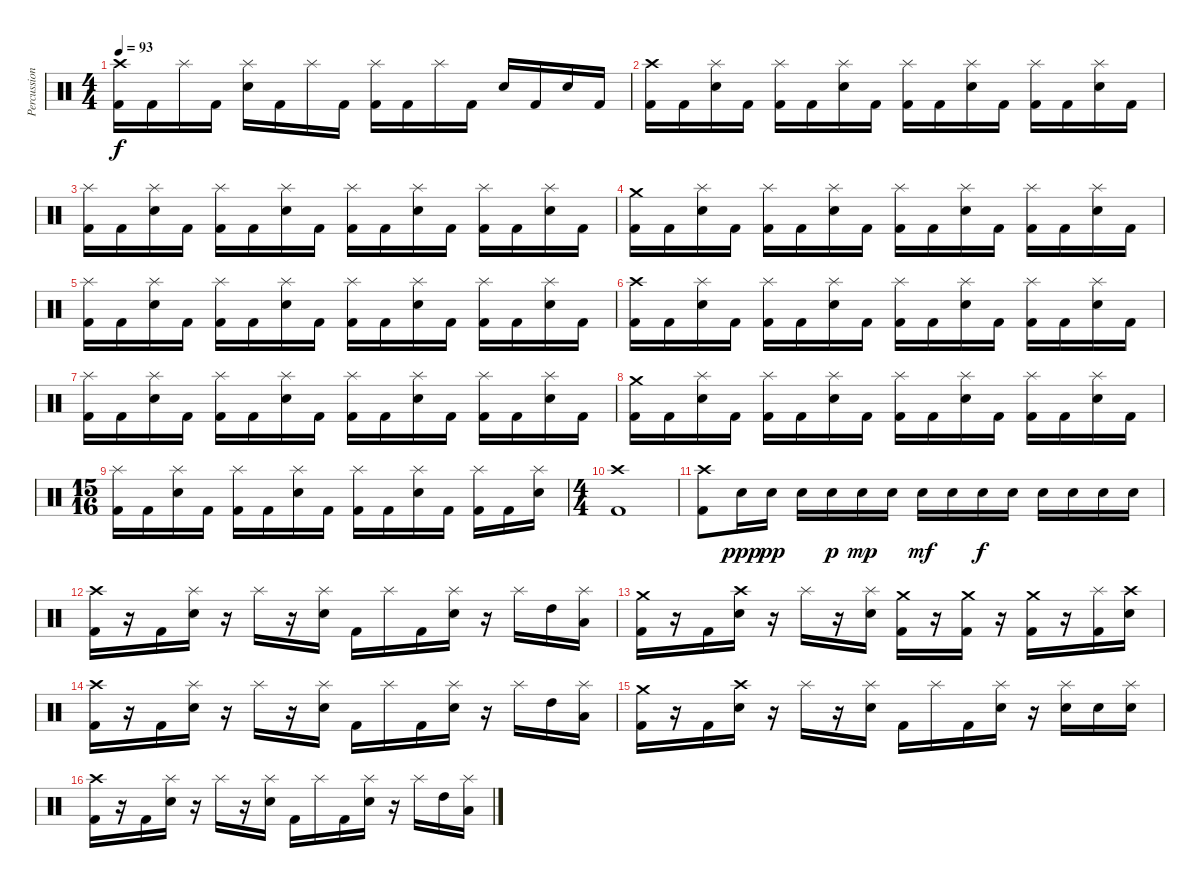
\track ("Percussion" "Percussion") {instrument percussion}
\staff {score}
\articulation defaults
\ts (4 4)
\tempo 93
\clef neutral
\ks c
("Crash high (hit)" "Kick (hit) 2").16{dy f} "Kick (hit) 2".16 "Splash (hit)".16 "Kick (hit) 2".16 ("Splash (hit)" "Electric Snare (hit)").16 "Kick (hit) 2".16 "Splash (hit)".16 "Kick (hit) 2".16 ("Splash (hit)" "Kick (hit) 2").16 "Kick (hit) 2".16 "Splash (hit)".16 "Kick (hit) 2".16 "Electric Snare (hit)".16 "Kick (hit) 2".16 "Electric Snare (hit)".16 "Kick (hit) 2".16 |
("Crash high (hit)" "Kick (hit) 2").16 "Kick (hit) 2".16 ("Splash (hit)" "Electric Snare (hit)").16 "Kick (hit) 2".16 ("Splash (hit)" "Kick (hit) 2").16 "Kick (hit) 2".16 ("Splash (hit)" "Electric Snare (hit)").16 "Kick (hit) 2".16 ("Splash (hit)" "Kick (hit) 2").16 "Kick (hit) 2".16 ("Splash (hit)" "Electric Snare (hit)").16 "Kick (hit) 2".16 ("Splash (hit)" "Kick (hit) 2").16 "Kick (hit) 2".16 ("Splash (hit)" "Electric Snare (hit)").16 "Kick (hit) 2".16 |
("Splash (hit)" "Kick (hit) 2").16 "Kick (hit) 2".16 ("Splash (hit)" "Electric Snare (hit)").16 "Kick (hit) 2".16 ("Splash (hit)" "Kick (hit) 2").16 "Kick (hit) 2".16 ("Splash (hit)" "Electric Snare (hit)").16 "Kick (hit) 2".16 ("Splash (hit)" "Kick (hit) 2").16 "Kick (hit) 2".16 ("Splash (hit)" "Electric Snare (hit)").16 "Kick (hit) 2".16 ("Splash (hit)" "Kick (hit) 2").16 "Kick (hit) 2".16 ("Splash (hit)" "Electric Snare (hit)").16 "Kick (hit) 2".16 |
("Crash medium (hit)" "Kick (hit) 2").16 "Kick (hit) 2".16 ("Splash (hit)" "Electric Snare (hit)").16 "Kick (hit) 2".16 ("Splash (hit)" "Kick (hit) 2").16 "Kick (hit) 2".16 ("Splash (hit)" "Electric Snare (hit)").16 "Kick (hit) 2".16 ("Splash (hit)" "Kick (hit) 2").16 "Kick (hit) 2".16 ("Splash (hit)" "Electric Snare (hit)").16 "Kick (hit) 2".16 ("Splash (hit)" "Kick (hit) 2").16 "Kick (hit) 2".16 ("Splash (hit)" "Electric Snare (hit)").16 "Kick (hit) 2".16 |
("Splash (hit)" "Kick (hit) 2").16 "Kick (hit) 2".16 ("Splash (hit)" "Electric Snare (hit)").16 "Kick (hit) 2".16 ("Splash (hit)" "Kick (hit) 2").16 "Kick (hit) 2".16 ("Splash (hit)" "Electric Snare (hit)").16 "Kick (hit) 2".16 ("Splash (hit)" "Kick (hit) 2").16 "Kick (hit) 2".16 ("Splash (hit)" "Electric Snare (hit)").16 "Kick (hit) 2".16 ("Splash (hit)" "Kick (hit) 2").16 "Kick (hit) 2".16 ("Splash (hit)" "Electric Snare (hit)").16 "Kick (hit) 2".16 |
("Crash high (hit)" "Kick (hit) 2").16 "Kick (hit) 2".16 ("Splash (hit)" "Electric Snare (hit)").16 "Kick (hit) 2".16 ("Splash (hit)" "Kick (hit) 2").16 "Kick (hit) 2".16 ("Splash (hit)" "Electric Snare (hit)").16 "Kick (hit) 2".16 ("Splash (hit)" "Kick (hit) 2").16 "Kick (hit) 2".16 ("Splash (hit)" "Electric Snare (hit)").16 "Kick (hit) 2".16 ("Splash (hit)" "Kick (hit) 2").16 "Kick (hit) 2".16 ("Splash (hit)" "Electric Snare (hit)").16 "Kick (hit) 2".16 |
("Splash (hit)" "Kick (hit) 2").16 "Kick (hit) 2".16 ("Splash (hit)" "Electric Snare (hit)").16 "Kick (hit) 2".16 ("Splash (hit)" "Kick (hit) 2").16 "Kick (hit) 2".16 ("Splash (hit)" "Electric Snare (hit)").16 "Kick (hit) 2".16 ("Splash (hit)" "Kick (hit) 2").16 "Kick (hit) 2".16 ("Splash (hit)" "Electric Snare (hit)").16 "Kick (hit) 2".16 ("Splash (hit)" "Kick (hit) 2").16 "Kick (hit) 2".16 ("Splash (hit)" "Electric Snare (hit)").16 "Kick (hit) 2".16 |
("Crash medium (hit)" "Kick (hit) 2").16 "Kick (hit) 2".16 ("Splash (hit)" "Electric Snare (hit)").16 "Kick (hit) 2".16 ("Splash (hit)" "Kick (hit) 2").16 "Kick (hit) 2".16 ("Splash (hit)" "Electric Snare (hit)").16 "Kick (hit) 2".16 ("Splash (hit)" "Kick (hit) 2").16 "Kick (hit) 2".16 ("Splash (hit)" "Electric Snare (hit)").16 "Kick (hit) 2".16 ("Splash (hit)" "Kick (hit) 2").16 "Kick (hit) 2".16 ("Splash (hit)" "Electric Snare (hit)").16 "Kick (hit) 2".16 |
\ts (15 16)
("Splash (hit)" "Kick (hit) 2").16 "Kick (hit) 2".16 ("Splash (hit)" "Electric Snare (hit)").16 "Kick (hit) 2".16 ("Splash (hit)" "Kick (hit) 2").16 "Kick (hit) 2".16 ("Splash (hit)" "Electric Snare (hit)").16 "Kick (hit) 2".16 ("Splash (hit)" "Kick (hit) 2").16 "Kick (hit) 2".16 ("Splash (hit)" "Electric Snare (hit)").16 "Kick (hit) 2".16 ("Splash (hit)" "Kick (hit) 2").16 "Kick (hit) 2".16 ("Splash (hit)" "Electric Snare (hit)").16 |
\ts (4 4)
("Crash high (hit)" "Kick (hit) 2").1 |
("Crash high (hit)" "Kick (hit) 2").8 "Electric Snare (hit)".16{dy ppp} "Electric Snare (hit)".16{dy pp} "Electric Snare (hit)".16 "Electric Snare (hit)".16{dy p} "Electric Snare (hit)".16{dy mp} "Electric Snare (hit)".16 "Electric Snare (hit)".16{dy mf} "Electric Snare (hit)".16 "Electric Snare (hit)".16{dy f} "Electric Snare (hit)".16 "Electric Snare (hit)".16 "Electric Snare (hit)".16 "Electric Snare (hit)".16 "Electric Snare (hit)".16 |
("Crash high (hit)" "Kick (hit) 2").16 r.16 "Kick (hit) 2".16 ("Splash (hit)" "Electric Snare (hit)").16 r.16 "Splash (hit)".16 r.16 ("Splash (hit)" "Electric Snare (hit)").16 "Kick (hit) 2".16 "Splash (hit)".16 "Kick (hit) 2".16 ("Splash (hit)" "Electric Snare (hit)").16 r.16 "Splash (hit)".16 "High Tom (hit)".16 ("Splash (hit)" "Low Tom (hit)").16 |
("Crash medium (hit)" "Kick (hit) 2").16 r.16 "Kick (hit) 2".16 ("Crash high (hit)" "Electric Snare (hit)").16 r.16 "Splash (hit)".16 r.16 ("Splash (hit)" "Electric Snare (hit)").16 ("Crash medium (hit)" "Kick (hit) 2").16 r.16 ("Crash medium (hit)" "Kick (hit) 2").16 r.16 ("Crash medium (hit)" "Kick (hit) 2").16 r.16 ("Splash (hit)" "Kick (hit) 2").16 ("Crash high (hit)" "Electric Snare (hit)").16 |
("Crash high (hit)" "Kick (hit) 2").16 r.16 "Kick (hit) 2".16 ("Splash (hit)" "Electric Snare (hit)").16 r.16 "Splash (hit)".16 r.16 ("Splash (hit)" "Electric Snare (hit)").16 "Kick (hit) 2".16 "Splash (hit)".16 "Kick (hit) 2".16 ("Splash (hit)" "Electric Snare (hit)").16 r.16 "Splash (hit)".16 "High Tom (hit)".16 ("Splash (hit)" "Low Tom (hit)").16 |
("Crash medium (hit)" "Kick (hit) 2").16 r.16 "Kick (hit) 2".16 ("Crash high (hit)" "Electric Snare (hit)").16 r.16 "Splash (hit)".16 r.16 ("Splash (hit)" "Electric Snare (hit)").16 "Kick (hit) 2".16 "Splash (hit)".16 "Kick (hit) 2".16 ("Splash (hit)" "Electric Snare (hit)").16 r.16 ("Splash (hit)" "Electric Snare (hit)").16 "Electric Snare (hit)".16 ("Splash (hit)" "Electric Snare (hit)").16 |
("Crash high (hit)" "Kick (hit) 2").16 r.16 "Kick (hit) 2".16 ("Splash (hit)" "Electric Snare (hit)").16 r.16 "Splash (hit)".16 r.16 ("Splash (hit)" "Electric Snare (hit)").16 "Kick (hit) 2".16 "Splash (hit)".16 "Kick (hit) 2".16 ("Splash (hit)" "Electric Snare (hit)").16 r.16 "Splash (hit)".16 "High Tom (hit)".16 ("Splash (hit)" "Low Tom (hit)").16
